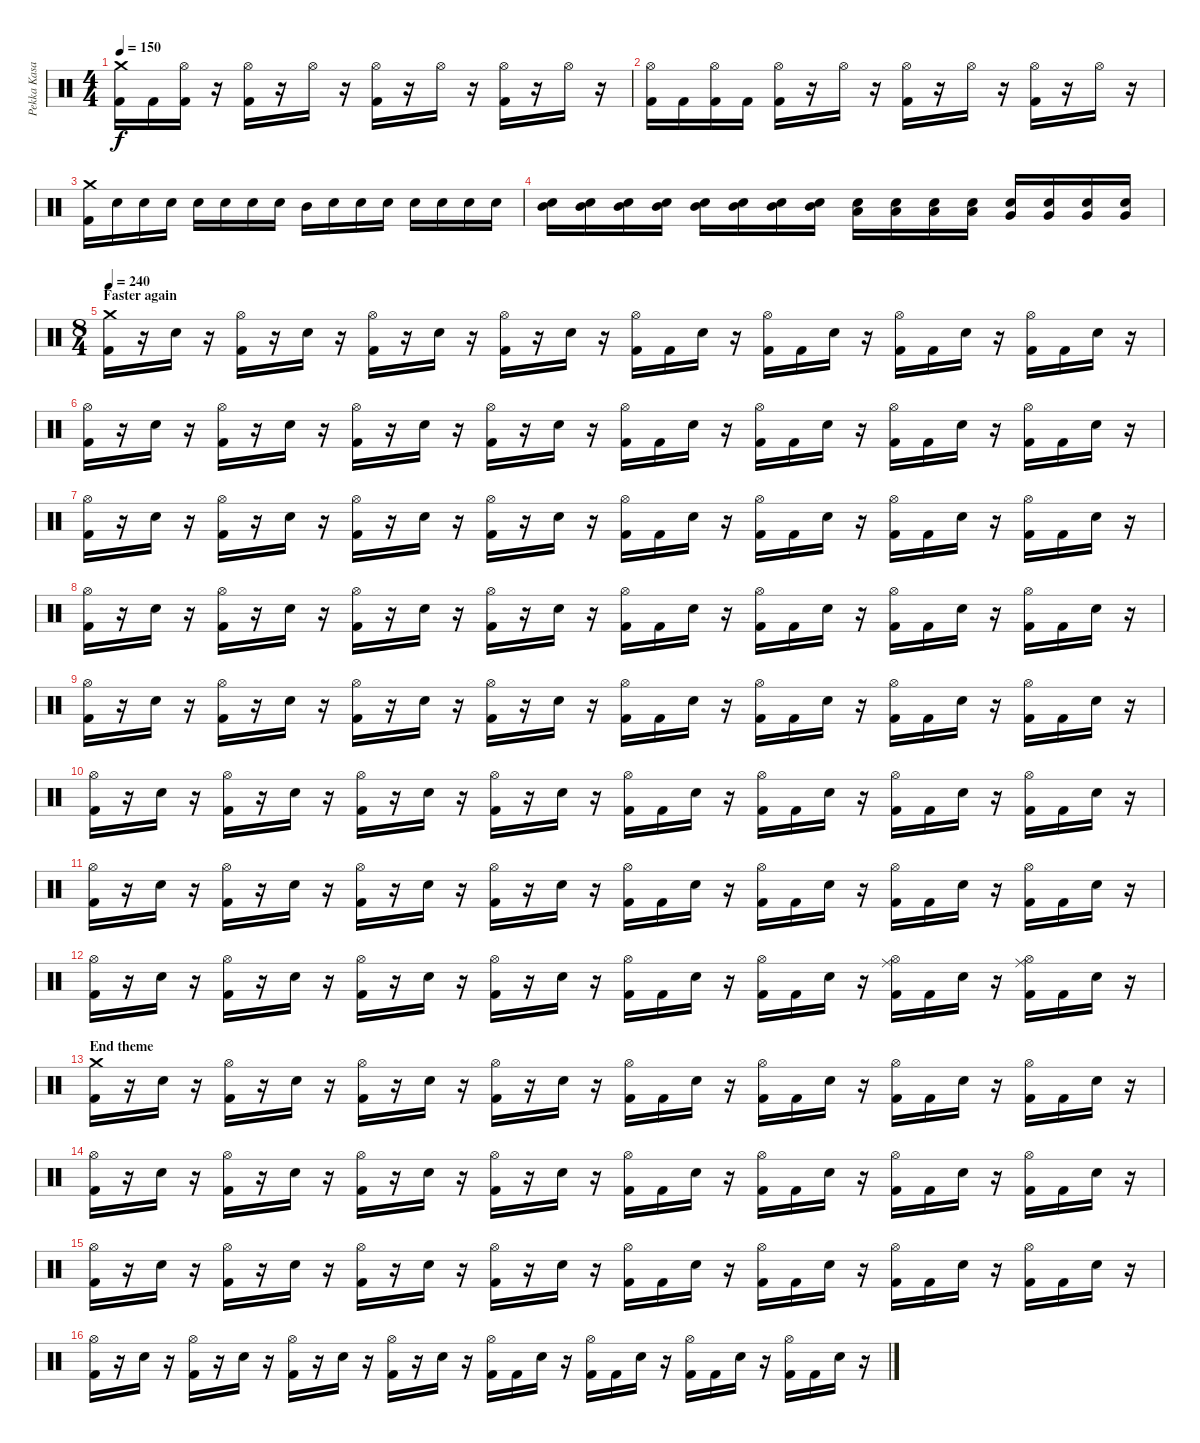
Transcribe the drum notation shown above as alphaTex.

\track ("Pekka Kasari" "Pekka Kasa") {instrument percussion}
\staff {score}
\articulation defaults
\ts (4 4)
\tempo 150
\clef neutral
\ks c
("Crash medium (hit)" "Kick (hit) 2").16{dy f} "Kick (hit) 2".16 ("Hi-Hat (open)" "Kick (hit) 2").16 r.16 ("Hi-Hat (open)" "Kick (hit) 2").16 r.16 "Hi-Hat (open)".16 r.16 ("Hi-Hat (open)" "Kick (hit) 2").16 r.16 "Hi-Hat (open)".16 r.16 ("Hi-Hat (open)" "Kick (hit) 2").16 r.16 "Hi-Hat (open)".16 r.16 |
("Hi-Hat (open)" "Kick (hit) 2").16 "Kick (hit) 2".16 ("Hi-Hat (open)" "Kick (hit) 2").16 "Kick (hit) 2".16 ("Hi-Hat (open)" "Kick (hit) 2").16 r.16 "Hi-Hat (open)".16 r.16 ("Hi-Hat (open)" "Kick (hit) 2").16 r.16 "Hi-Hat (open)".16 r.16 ("Hi-Hat (open)" "Kick (hit) 2").16 r.16 "Hi-Hat (open)".16 r.16 |
("Crash medium (hit)" "Kick (hit) 2").16 "Electric Snare (hit)".16 "Electric Snare (hit)".16 "Electric Snare (hit)".16 "Electric Snare (hit)".16 "Electric Snare (hit)".16 "Electric Snare (hit)".16 "Electric Snare (hit)".16 "Mid Tom (hit)".16 "Electric Snare (hit)".16 "Electric Snare (hit)".16 "Electric Snare (hit)".16 "Electric Snare (hit)".16 "Electric Snare (hit)".16 "Electric Snare (hit)".16 "Electric Snare (hit)".16 |
("Mid Tom (hit)" "Electric Snare (hit)").16 ("Mid Tom (hit)" "Electric Snare (hit)").16 ("Mid Tom (hit)" "Electric Snare (hit)").16 ("Mid Tom (hit)" "Electric Snare (hit)").16 ("Mid Tom (hit)" "Electric Snare (hit)").16 ("Mid Tom (hit)" "Electric Snare (hit)").16 ("Mid Tom (hit)" "Electric Snare (hit)").16 ("Mid Tom (hit)" "Electric Snare (hit)").16 ("Low Tom (hit)" "Electric Snare (hit)").16 ("Low Tom (hit)" "Electric Snare (hit)").16 ("Low Tom (hit)" "Electric Snare (hit)").16 ("Low Tom (hit)" "Electric Snare (hit)").16 ("Very Low Tom (hit)" "Electric Snare (hit)").16 ("Very Low Tom (hit)" "Electric Snare (hit)").16 ("Very Low Tom (hit)" "Electric Snare (hit)").16 ("Very Low Tom (hit)" "Electric Snare (hit)").16 |
\ts (8 4)
\section ("" "Faster again")
\tempo 240
("Crash medium (hit)" "Kick (hit) 2").16 r.16 "Electric Snare (hit)".16 r.16 ("Hi-Hat (open)" "Kick (hit) 2").16 r.16 "Electric Snare (hit)".16 r.16 ("Hi-Hat (open)" "Kick (hit) 2").16 r.16 "Electric Snare (hit)".16 r.16 ("Hi-Hat (open)" "Kick (hit) 2").16 r.16 "Electric Snare (hit)".16 r.16 ("Hi-Hat (open)" "Kick (hit) 2").16 "Kick (hit) 2".16 "Electric Snare (hit)".16 r.16 ("Hi-Hat (open)" "Kick (hit) 2").16 "Kick (hit) 2".16 "Electric Snare (hit)".16 r.16 ("Hi-Hat (open)" "Kick (hit) 2").16 "Kick (hit) 2".16 "Electric Snare (hit)".16 r.16 ("Hi-Hat (open)" "Kick (hit) 2").16 "Kick (hit) 2".16 "Electric Snare (hit)".16 r.16 |
("Hi-Hat (open)" "Kick (hit) 2").16 r.16 "Electric Snare (hit)".16 r.16 ("Hi-Hat (open)" "Kick (hit) 2").16 r.16 "Electric Snare (hit)".16 r.16 ("Hi-Hat (open)" "Kick (hit) 2").16 r.16 "Electric Snare (hit)".16 r.16 ("Hi-Hat (open)" "Kick (hit) 2").16 r.16 "Electric Snare (hit)".16 r.16 ("Hi-Hat (open)" "Kick (hit) 2").16 "Kick (hit) 2".16 "Electric Snare (hit)".16 r.16 ("Hi-Hat (open)" "Kick (hit) 2").16 "Kick (hit) 2".16 "Electric Snare (hit)".16 r.16 ("Hi-Hat (open)" "Kick (hit) 2").16 "Kick (hit) 2".16 "Electric Snare (hit)".16 r.16 ("Hi-Hat (open)" "Kick (hit) 2").16 "Kick (hit) 2".16 "Electric Snare (hit)".16 r.16 |
("Hi-Hat (open)" "Kick (hit) 2").16 r.16 "Electric Snare (hit)".16 r.16 ("Hi-Hat (open)" "Kick (hit) 2").16 r.16 "Electric Snare (hit)".16 r.16 ("Hi-Hat (open)" "Kick (hit) 2").16 r.16 "Electric Snare (hit)".16 r.16 ("Hi-Hat (open)" "Kick (hit) 2").16 r.16 "Electric Snare (hit)".16 r.16 ("Hi-Hat (open)" "Kick (hit) 2").16 "Kick (hit) 2".16 "Electric Snare (hit)".16 r.16 ("Hi-Hat (open)" "Kick (hit) 2").16 "Kick (hit) 2".16 "Electric Snare (hit)".16 r.16 ("Hi-Hat (open)" "Kick (hit) 2").16 "Kick (hit) 2".16 "Electric Snare (hit)".16 r.16 ("Hi-Hat (open)" "Kick (hit) 2").16 "Kick (hit) 2".16 "Electric Snare (hit)".16 r.16 |
("Hi-Hat (open)" "Kick (hit) 2").16 r.16 "Electric Snare (hit)".16 r.16 ("Hi-Hat (open)" "Kick (hit) 2").16 r.16 "Electric Snare (hit)".16 r.16 ("Hi-Hat (open)" "Kick (hit) 2").16 r.16 "Electric Snare (hit)".16 r.16 ("Hi-Hat (open)" "Kick (hit) 2").16 r.16 "Electric Snare (hit)".16 r.16 ("Hi-Hat (open)" "Kick (hit) 2").16 "Kick (hit) 2".16 "Electric Snare (hit)".16 r.16 ("Hi-Hat (open)" "Kick (hit) 2").16 "Kick (hit) 2".16 "Electric Snare (hit)".16 r.16 ("Hi-Hat (open)" "Kick (hit) 2").16 "Kick (hit) 2".16 "Electric Snare (hit)".16 r.16 ("Hi-Hat (open)" "Kick (hit) 2").16 "Kick (hit) 2".16 "Electric Snare (hit)".16 r.16 |
("Hi-Hat (open)" "Kick (hit) 2").16 r.16 "Electric Snare (hit)".16 r.16 ("Hi-Hat (open)" "Kick (hit) 2").16 r.16 "Electric Snare (hit)".16 r.16 ("Hi-Hat (open)" "Kick (hit) 2").16 r.16 "Electric Snare (hit)".16 r.16 ("Hi-Hat (open)" "Kick (hit) 2").16 r.16 "Electric Snare (hit)".16 r.16 ("Hi-Hat (open)" "Kick (hit) 2").16 "Kick (hit) 2".16 "Electric Snare (hit)".16 r.16 ("Hi-Hat (open)" "Kick (hit) 2").16 "Kick (hit) 2".16 "Electric Snare (hit)".16 r.16 ("Hi-Hat (open)" "Kick (hit) 2").16 "Kick (hit) 2".16 "Electric Snare (hit)".16 r.16 ("Hi-Hat (open)" "Kick (hit) 2").16 "Kick (hit) 2".16 "Electric Snare (hit)".16 r.16 |
("Hi-Hat (open)" "Kick (hit) 2").16 r.16 "Electric Snare (hit)".16 r.16 ("Hi-Hat (open)" "Kick (hit) 2").16 r.16 "Electric Snare (hit)".16 r.16 ("Hi-Hat (open)" "Kick (hit) 2").16 r.16 "Electric Snare (hit)".16 r.16 ("Hi-Hat (open)" "Kick (hit) 2").16 r.16 "Electric Snare (hit)".16 r.16 ("Hi-Hat (open)" "Kick (hit) 2").16 "Kick (hit) 2".16 "Electric Snare (hit)".16 r.16 ("Hi-Hat (open)" "Kick (hit) 2").16 "Kick (hit) 2".16 "Electric Snare (hit)".16 r.16 ("Hi-Hat (open)" "Kick (hit) 2").16 "Kick (hit) 2".16 "Electric Snare (hit)".16 r.16 ("Hi-Hat (open)" "Kick (hit) 2").16 "Kick (hit) 2".16 "Electric Snare (hit)".16 r.16 |
("Hi-Hat (open)" "Kick (hit) 2").16 r.16 "Electric Snare (hit)".16 r.16 ("Hi-Hat (open)" "Kick (hit) 2").16 r.16 "Electric Snare (hit)".16 r.16 ("Hi-Hat (open)" "Kick (hit) 2").16 r.16 "Electric Snare (hit)".16 r.16 ("Hi-Hat (open)" "Kick (hit) 2").16 r.16 "Electric Snare (hit)".16 r.16 ("Hi-Hat (open)" "Kick (hit) 2").16 "Kick (hit) 2".16 "Electric Snare (hit)".16 r.16 ("Hi-Hat (open)" "Kick (hit) 2").16 "Kick (hit) 2".16 "Electric Snare (hit)".16 r.16 ("Hi-Hat (open)" "Kick (hit) 2").16 "Kick (hit) 2".16 "Electric Snare (hit)".16 r.16 ("Hi-Hat (open)" "Kick (hit) 2").16 "Kick (hit) 2".16 "Electric Snare (hit)".16 r.16 |
("Hi-Hat (open)" "Kick (hit) 2").16 r.16 "Electric Snare (hit)".16 r.16 ("Hi-Hat (open)" "Kick (hit) 2").16 r.16 "Electric Snare (hit)".16 r.16 ("Hi-Hat (open)" "Kick (hit) 2").16 r.16 "Electric Snare (hit)".16 r.16 ("Hi-Hat (open)" "Kick (hit) 2").16 r.16 "Electric Snare (hit)".16 r.16 ("Hi-Hat (open)" "Kick (hit) 2").16 "Kick (hit) 2".16 "Electric Snare (hit)".16 r.16 ("Hi-Hat (open)" "Kick (hit) 2").16 "Kick (hit) 2".16 "Electric Snare (hit)".16 r.16 ("Hi-Hat (open)" "Ride (middle)" "Kick (hit) 2").16 "Kick (hit) 2".16 "Electric Snare (hit)".16 r.16 ("Hi-Hat (open)" "Ride (middle)" "Kick (hit) 2").16 "Kick (hit) 2".16 "Electric Snare (hit)".16 r.16 |
\section ("" "End theme")
("Crash medium (hit)" "Kick (hit) 2").16 r.16 "Electric Snare (hit)".16 r.16 ("Hi-Hat (open)" "Kick (hit) 2").16 r.16 "Electric Snare (hit)".16 r.16 ("Hi-Hat (open)" "Kick (hit) 2").16 r.16 "Electric Snare (hit)".16 r.16 ("Hi-Hat (open)" "Kick (hit) 2").16 r.16 "Electric Snare (hit)".16 r.16 ("Hi-Hat (open)" "Kick (hit) 2").16 "Kick (hit) 2".16 "Electric Snare (hit)".16 r.16 ("Hi-Hat (open)" "Kick (hit) 2").16 "Kick (hit) 2".16 "Electric Snare (hit)".16 r.16 ("Hi-Hat (open)" "Kick (hit) 2").16 "Kick (hit) 2".16 "Electric Snare (hit)".16 r.16 ("Hi-Hat (open)" "Kick (hit) 2").16 "Kick (hit) 2".16 "Electric Snare (hit)".16 r.16 |
("Hi-Hat (open)" "Kick (hit) 2").16 r.16 "Electric Snare (hit)".16 r.16 ("Hi-Hat (open)" "Kick (hit) 2").16 r.16 "Electric Snare (hit)".16 r.16 ("Hi-Hat (open)" "Kick (hit) 2").16 r.16 "Electric Snare (hit)".16 r.16 ("Hi-Hat (open)" "Kick (hit) 2").16 r.16 "Electric Snare (hit)".16 r.16 ("Hi-Hat (open)" "Kick (hit) 2").16 "Kick (hit) 2".16 "Electric Snare (hit)".16 r.16 ("Hi-Hat (open)" "Kick (hit) 2").16 "Kick (hit) 2".16 "Electric Snare (hit)".16 r.16 ("Hi-Hat (open)" "Kick (hit) 2").16 "Kick (hit) 2".16 "Electric Snare (hit)".16 r.16 ("Hi-Hat (open)" "Kick (hit) 2").16 "Kick (hit) 2".16 "Electric Snare (hit)".16 r.16 |
("Hi-Hat (open)" "Kick (hit) 2").16 r.16 "Electric Snare (hit)".16 r.16 ("Hi-Hat (open)" "Kick (hit) 2").16 r.16 "Electric Snare (hit)".16 r.16 ("Hi-Hat (open)" "Kick (hit) 2").16 r.16 "Electric Snare (hit)".16 r.16 ("Hi-Hat (open)" "Kick (hit) 2").16 r.16 "Electric Snare (hit)".16 r.16 ("Hi-Hat (open)" "Kick (hit) 2").16 "Kick (hit) 2".16 "Electric Snare (hit)".16 r.16 ("Hi-Hat (open)" "Kick (hit) 2").16 "Kick (hit) 2".16 "Electric Snare (hit)".16 r.16 ("Hi-Hat (open)" "Kick (hit) 2").16 "Kick (hit) 2".16 "Electric Snare (hit)".16 r.16 ("Hi-Hat (open)" "Kick (hit) 2").16 "Kick (hit) 2".16 "Electric Snare (hit)".16 r.16 |
("Hi-Hat (open)" "Kick (hit) 2").16 r.16 "Electric Snare (hit)".16 r.16 ("Hi-Hat (open)" "Kick (hit) 2").16 r.16 "Electric Snare (hit)".16 r.16 ("Hi-Hat (open)" "Kick (hit) 2").16 r.16 "Electric Snare (hit)".16 r.16 ("Hi-Hat (open)" "Kick (hit) 2").16 r.16 "Electric Snare (hit)".16 r.16 ("Hi-Hat (open)" "Kick (hit) 2").16 "Kick (hit) 2".16 "Electric Snare (hit)".16 r.16 ("Hi-Hat (open)" "Kick (hit) 2").16 "Kick (hit) 2".16 "Electric Snare (hit)".16 r.16 ("Hi-Hat (open)" "Kick (hit) 2").16 "Kick (hit) 2".16 "Electric Snare (hit)".16 r.16 ("Hi-Hat (open)" "Kick (hit) 2").16 "Kick (hit) 2".16 "Electric Snare (hit)".16 r.16
